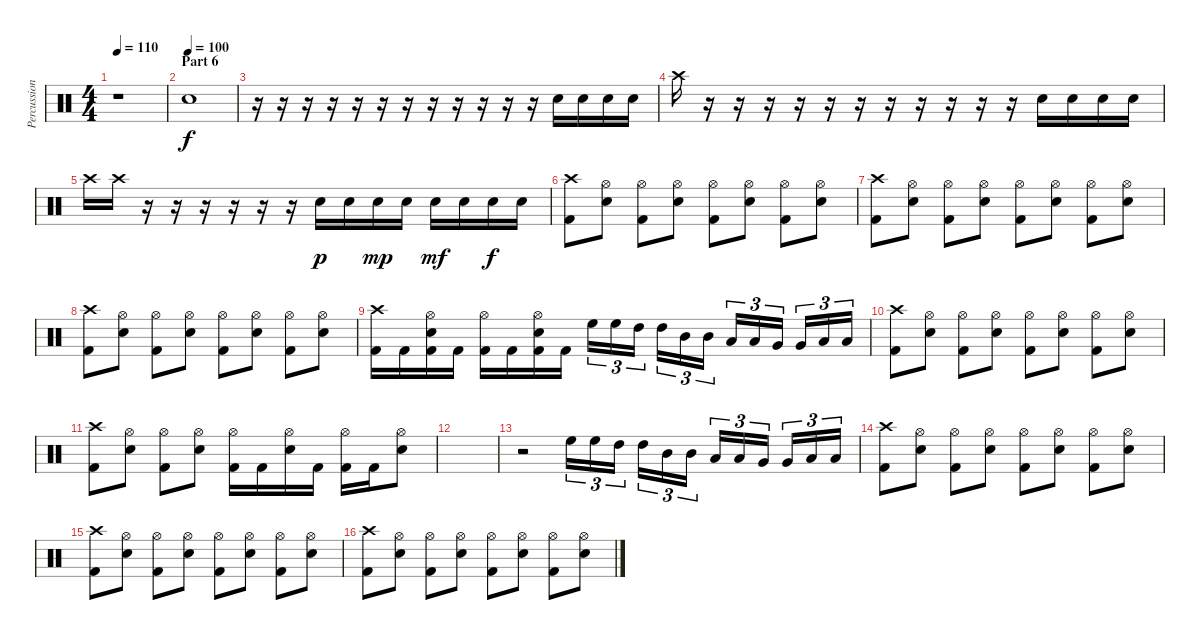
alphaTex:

\track ("Percussion" "Percussion") {instrument percussion}
\staff {score}
\articulation defaults
\ts (4 4)
\tempo 110
\clef neutral
\ks c
r.1{dy f} |
\section ("" "Part 6")
\tempo (100)
"Electric Snare (hit)".1 |
r.16 r.16 r.16 r.16 r.16 r.16 r.16 r.16 r.16 r.16 r.16 r.16 "Electric Snare (hit)".16 "Electric Snare (hit)".16 "Electric Snare (hit)".16 "Electric Snare (hit)".16 |
"Crash high (hit)".16 r.16 r.16 r.16 r.16 r.16 r.16 r.16 r.16 r.16 r.16 r.16 "Electric Snare (hit)".16 "Electric Snare (hit)".16 "Electric Snare (hit)".16 "Electric Snare (hit)".16 |
"Crash high (hit)".16 "Crash high (hit)".16 r.16 r.16 r.16 r.16 r.16 r.16 "Electric Snare (hit)".16{dy p} "Electric Snare (hit)".16 "Electric Snare (hit)".16{dy mp} "Electric Snare (hit)".16 "Electric Snare (hit)".16{dy mf} "Electric Snare (hit)".16 "Electric Snare (hit)".16{dy f} "Electric Snare (hit)".16 |
("Crash high (hit)" "Kick (hit) 2").8 ("Hi-Hat (open)" "Electric Snare (hit)").8 ("Hi-Hat (open)" "Kick (hit) 2").8 ("Hi-Hat (open)" "Electric Snare (hit)").8 ("Hi-Hat (open)" "Kick (hit) 2").8 ("Hi-Hat (open)" "Electric Snare (hit)").8 ("Hi-Hat (open)" "Kick (hit) 2").8 ("Hi-Hat (open)" "Electric Snare (hit)").8 |
("Crash high (hit)" "Kick (hit) 2").8 ("Hi-Hat (open)" "Electric Snare (hit)").8 ("Hi-Hat (open)" "Kick (hit) 2").8 ("Hi-Hat (open)" "Electric Snare (hit)").8 ("Hi-Hat (open)" "Kick (hit) 2").8 ("Hi-Hat (open)" "Electric Snare (hit)").8 ("Hi-Hat (open)" "Kick (hit) 2").8 ("Hi-Hat (open)" "Electric Snare (hit)").8 |
("Crash high (hit)" "Kick (hit) 2").8 ("Hi-Hat (open)" "Electric Snare (hit)").8 ("Hi-Hat (open)" "Kick (hit) 2").8 ("Hi-Hat (open)" "Electric Snare (hit)").8 ("Hi-Hat (open)" "Kick (hit) 2").8 ("Hi-Hat (open)" "Electric Snare (hit)").8 ("Hi-Hat (open)" "Kick (hit) 2").8 ("Hi-Hat (open)" "Electric Snare (hit)").8 |
("Crash high (hit)" "Kick (hit) 2").16 "Kick (hit) 2".16 ("Hi-Hat (open)" "Electric Snare (hit)" "Kick (hit) 2").16 "Kick (hit) 2".16 ("Hi-Hat (open)" "Kick (hit) 2").16 "Kick (hit) 2".16 ("Hi-Hat (open)" "Electric Snare (hit)" "Kick (hit) 2").16 "Kick (hit) 2".16 "High Floor Tom (hit)".16{tu (3 2)} "High Floor Tom (hit)".16{tu (3 2)} "High Tom (hit)".16{tu (3 2)} "High Tom (hit)".16{tu (3 2)} "Mid Tom (hit)".16{tu (3 2)} "Mid Tom (hit)".16{tu (3 2)} "Low Tom (hit)".16{tu (3 2)} "Low Tom (hit)".16{tu (3 2)} "Very Low Tom (hit)".16{tu (3 2)} "Very Low Tom (hit)".16{tu (3 2)} "Low Floor Tom (hit)".16{tu (3 2)} "Low Floor Tom (hit)".16{tu (3 2)} |
("Crash high (hit)" "Kick (hit) 2").8 ("Hi-Hat (open)" "Electric Snare (hit)").8 ("Hi-Hat (open)" "Kick (hit) 2").8 ("Hi-Hat (open)" "Electric Snare (hit)").8 ("Hi-Hat (open)" "Kick (hit) 2").8 ("Hi-Hat (open)" "Electric Snare (hit)").8 ("Hi-Hat (open)" "Kick (hit) 2").8 ("Hi-Hat (open)" "Electric Snare (hit)").8 |
("Crash high (hit)" "Kick (hit) 2").8 ("Hi-Hat (open)" "Electric Snare (hit)").8 ("Hi-Hat (open)" "Kick (hit) 2").8 ("Hi-Hat (open)" "Electric Snare (hit)").8 ("Hi-Hat (open)" "Kick (hit) 2").16 "Kick (hit) 2".16 ("Hi-Hat (open)" "Electric Snare (hit)").16 "Kick (hit) 2".16 ("Hi-Hat (open)" "Kick (hit) 2").16 "Kick (hit) 2".16 ("Hi-Hat (open)" "Electric Snare (hit)").8 |
|
r.2 "High Floor Tom (hit)".16{tu (3 2)} "High Floor Tom (hit)".16{tu (3 2)} "High Tom (hit)".16{tu (3 2)} "High Tom (hit)".16{tu (3 2)} "Mid Tom (hit)".16{tu (3 2)} "Mid Tom (hit)".16{tu (3 2)} "Low Tom (hit)".16{tu (3 2)} "Low Tom (hit)".16{tu (3 2)} "Very Low Tom (hit)".16{tu (3 2)} "Very Low Tom (hit)".16{tu (3 2)} "Low Floor Tom (hit)".16{tu (3 2)} "Low Floor Tom (hit)".16{tu (3 2)} |
("Crash high (hit)" "Kick (hit) 2").8 ("Hi-Hat (open)" "Electric Snare (hit)").8 ("Hi-Hat (open)" "Kick (hit) 2").8 ("Hi-Hat (open)" "Electric Snare (hit)").8 ("Hi-Hat (open)" "Kick (hit) 2").8 ("Hi-Hat (open)" "Electric Snare (hit)").8 ("Hi-Hat (open)" "Kick (hit) 2").8 ("Hi-Hat (open)" "Electric Snare (hit)").8 |
("Crash high (hit)" "Kick (hit) 2").8 ("Hi-Hat (open)" "Electric Snare (hit)").8 ("Hi-Hat (open)" "Kick (hit) 2").8 ("Hi-Hat (open)" "Electric Snare (hit)").8 ("Hi-Hat (open)" "Kick (hit) 2").8 ("Hi-Hat (open)" "Electric Snare (hit)").8 ("Hi-Hat (open)" "Kick (hit) 2").8 ("Hi-Hat (open)" "Electric Snare (hit)").8 |
("Crash high (hit)" "Kick (hit) 2").8 ("Hi-Hat (open)" "Electric Snare (hit)").8 ("Hi-Hat (open)" "Kick (hit) 2").8 ("Hi-Hat (open)" "Electric Snare (hit)").8 ("Hi-Hat (open)" "Kick (hit) 2").8 ("Hi-Hat (open)" "Electric Snare (hit)").8 ("Hi-Hat (open)" "Kick (hit) 2").8 ("Hi-Hat (open)" "Electric Snare (hit)").8
